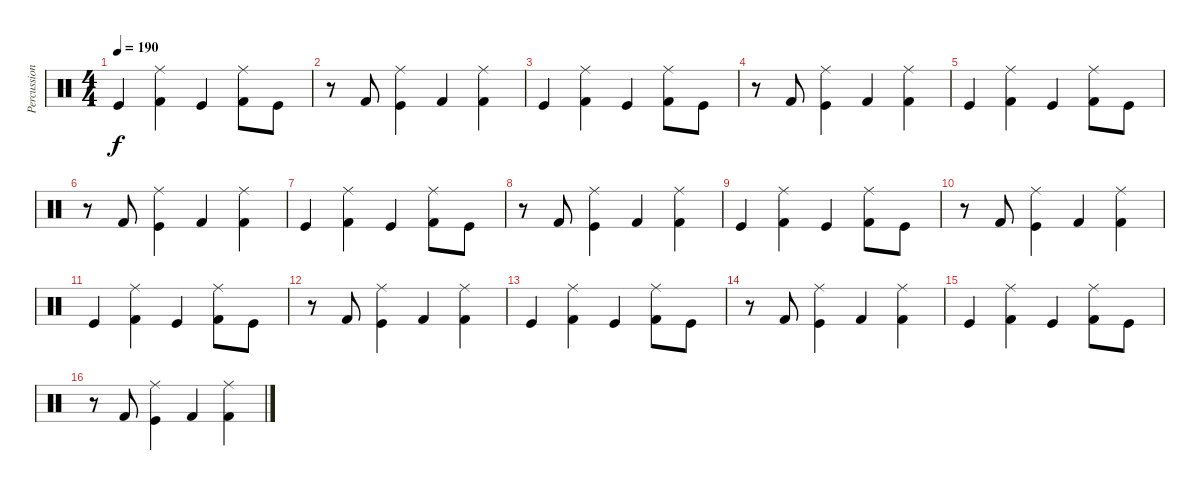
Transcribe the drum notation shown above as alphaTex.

\track ("Percussion" "Percussion") {instrument percussion}
\staff {score}
\articulation defaults
\ts (4 4)
\tempo 190
\clef neutral
\ks c "Kick (hit)".4{dy f}
("Ride (middle)" "Kick (hit) 2").4 "Kick (hit)".4 ("Ride (middle)" "Kick (hit) 2").8 "Kick (hit)".8 |
r.8 "Kick (hit) 2".8 ("Ride (middle)" "Kick (hit)").4 "Kick (hit) 2".4 ("Ride (middle)" "Kick (hit) 2").4 |
"Kick (hit)".4 ("Ride (middle)" "Kick (hit) 2").4 "Kick (hit)".4 ("Ride (middle)" "Kick (hit) 2").8 "Kick (hit)".8 |
r.8 "Kick (hit) 2".8 ("Ride (middle)" "Kick (hit)").4 "Kick (hit) 2".4 ("Ride (middle)" "Kick (hit) 2").4 |
"Kick (hit)".4 ("Ride (middle)" "Kick (hit) 2").4 "Kick (hit)".4 ("Ride (middle)" "Kick (hit) 2").8 "Kick (hit)".8 |
r.8 "Kick (hit) 2".8 ("Ride (middle)" "Kick (hit)").4 "Kick (hit) 2".4 ("Ride (middle)" "Kick (hit) 2").4 |
"Kick (hit)".4 ("Ride (middle)" "Kick (hit) 2").4 "Kick (hit)".4 ("Ride (middle)" "Kick (hit) 2").8 "Kick (hit)".8 |
r.8 "Kick (hit) 2".8 ("Ride (middle)" "Kick (hit)").4 "Kick (hit) 2".4 ("Ride (middle)" "Kick (hit) 2").4 |
"Kick (hit)".4 ("Ride (middle)" "Kick (hit) 2").4 "Kick (hit)".4 ("Ride (middle)" "Kick (hit) 2").8 "Kick (hit)".8 |
r.8 "Kick (hit) 2".8 ("Ride (middle)" "Kick (hit)").4 "Kick (hit) 2".4 ("Ride (middle)" "Kick (hit) 2").4 |
"Kick (hit)".4 ("Ride (middle)" "Kick (hit) 2").4 "Kick (hit)".4 ("Ride (middle)" "Kick (hit) 2").8 "Kick (hit)".8 |
r.8 "Kick (hit) 2".8 ("Ride (middle)" "Kick (hit)").4 "Kick (hit) 2".4 ("Ride (middle)" "Kick (hit) 2").4 |
"Kick (hit)".4 ("Ride (middle)" "Kick (hit) 2").4 "Kick (hit)".4 ("Ride (middle)" "Kick (hit) 2").8 "Kick (hit)".8 |
r.8 "Kick (hit) 2".8 ("Ride (middle)" "Kick (hit)").4 "Kick (hit) 2".4 ("Ride (middle)" "Kick (hit) 2").4 |
"Kick (hit)".4 ("Ride (middle)" "Kick (hit) 2").4 "Kick (hit)".4 ("Ride (middle)" "Kick (hit) 2").8 "Kick (hit)".8 |
r.8 "Kick (hit) 2".8 ("Ride (middle)" "Kick (hit)").4 "Kick (hit) 2".4 ("Ride (middle)" "Kick (hit) 2").4
